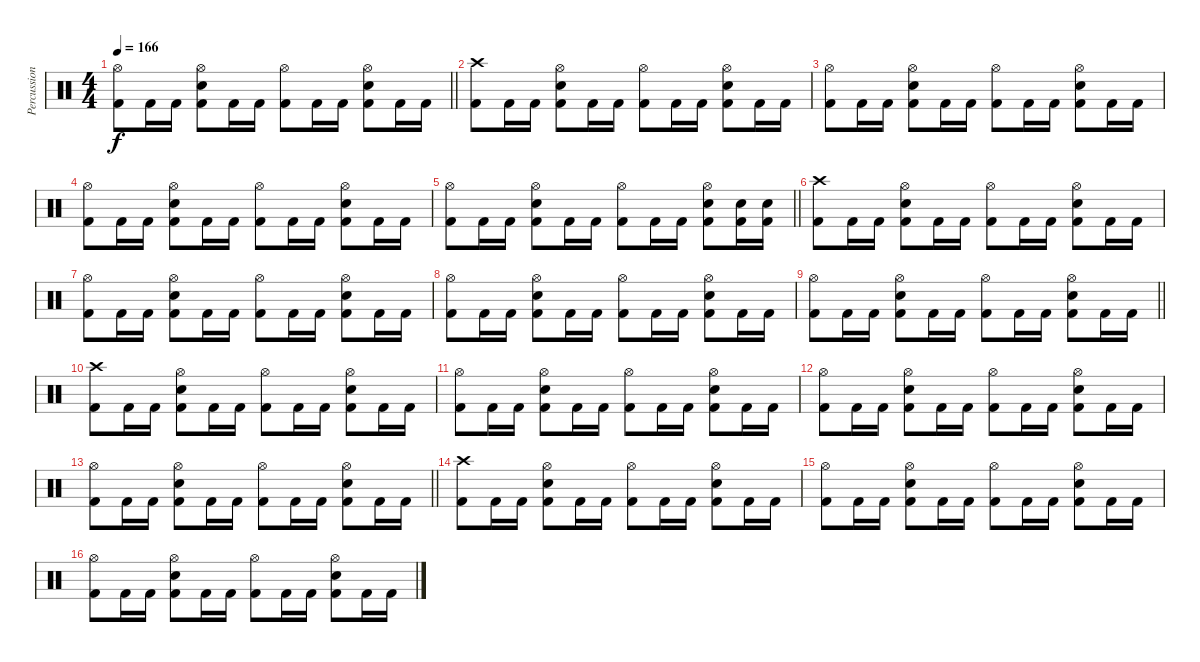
\track ("Percussion" "Percussion") {instrument percussion}
\staff {score}
\articulation defaults
\ts (4 4)
\tempo 166
\clef neutral
\barLineRight lightlight
\ks c
("Hi-Hat (open)" "Kick (hit) 2").8{dy f} "Kick (hit) 2".16 "Kick (hit) 2".16 ("Hi-Hat (open)" "Snare (hit) 2" "Kick (hit) 2").8 "Kick (hit) 2".16 "Kick (hit) 2".16 ("Hi-Hat (open)" "Kick (hit) 2").8 "Kick (hit) 2".16 "Kick (hit) 2".16 ("Hi-Hat (open)" "Snare (hit) 2" "Kick (hit) 2").8 "Kick (hit) 2".16 "Kick (hit) 2".16 |
("Crash high (hit)" "Kick (hit) 2").8 "Kick (hit) 2".16 "Kick (hit) 2".16 ("Hi-Hat (open)" "Snare (hit) 2" "Kick (hit) 2").8 "Kick (hit) 2".16 "Kick (hit) 2".16 ("Hi-Hat (open)" "Kick (hit) 2").8 "Kick (hit) 2".16 "Kick (hit) 2".16 ("Hi-Hat (open)" "Snare (hit) 2" "Kick (hit) 2").8 "Kick (hit) 2".16 "Kick (hit) 2".16 |
("Hi-Hat (open)" "Kick (hit) 2").8 "Kick (hit) 2".16 "Kick (hit) 2".16 ("Hi-Hat (open)" "Snare (hit) 2" "Kick (hit) 2").8 "Kick (hit) 2".16 "Kick (hit) 2".16 ("Hi-Hat (open)" "Kick (hit) 2").8 "Kick (hit) 2".16 "Kick (hit) 2".16 ("Hi-Hat (open)" "Snare (hit) 2" "Kick (hit) 2").8 "Kick (hit) 2".16 "Kick (hit) 2".16 |
("Hi-Hat (open)" "Kick (hit) 2").8 "Kick (hit) 2".16 "Kick (hit) 2".16 ("Hi-Hat (open)" "Snare (hit) 2" "Kick (hit) 2").8 "Kick (hit) 2".16 "Kick (hit) 2".16 ("Hi-Hat (open)" "Kick (hit) 2").8 "Kick (hit) 2".16 "Kick (hit) 2".16 ("Hi-Hat (open)" "Snare (hit) 2" "Kick (hit) 2").8 "Kick (hit) 2".16 "Kick (hit) 2".16 |
\barLineRight lightlight
("Hi-Hat (open)" "Kick (hit) 2").8 "Kick (hit) 2".16 "Kick (hit) 2".16 ("Hi-Hat (open)" "Snare (hit) 2" "Kick (hit) 2").8 "Kick (hit) 2".16 "Kick (hit) 2".16 ("Hi-Hat (open)" "Kick (hit) 2").8 "Kick (hit) 2".16 "Kick (hit) 2".16 ("Hi-Hat (open)" "Snare (hit) 2" "Kick (hit) 2").8 ("Snare (hit) 2" "Kick (hit) 2").16 ("Snare (hit) 2" "Kick (hit) 2").16 |
("Crash high (hit)" "Kick (hit) 2").8 "Kick (hit) 2".16 "Kick (hit) 2".16 ("Hi-Hat (open)" "Snare (hit) 2" "Kick (hit) 2").8 "Kick (hit) 2".16 "Kick (hit) 2".16 ("Hi-Hat (open)" "Kick (hit) 2").8 "Kick (hit) 2".16 "Kick (hit) 2".16 ("Hi-Hat (open)" "Snare (hit) 2" "Kick (hit) 2").8 "Kick (hit) 2".16 "Kick (hit) 2".16 |
("Hi-Hat (open)" "Kick (hit) 2").8 "Kick (hit) 2".16 "Kick (hit) 2".16 ("Hi-Hat (open)" "Snare (hit) 2" "Kick (hit) 2").8 "Kick (hit) 2".16 "Kick (hit) 2".16 ("Hi-Hat (open)" "Kick (hit) 2").8 "Kick (hit) 2".16 "Kick (hit) 2".16 ("Hi-Hat (open)" "Snare (hit) 2" "Kick (hit) 2").8 "Kick (hit) 2".16 "Kick (hit) 2".16 |
("Hi-Hat (open)" "Kick (hit) 2").8 "Kick (hit) 2".16 "Kick (hit) 2".16 ("Hi-Hat (open)" "Snare (hit) 2" "Kick (hit) 2").8 "Kick (hit) 2".16 "Kick (hit) 2".16 ("Hi-Hat (open)" "Kick (hit) 2").8 "Kick (hit) 2".16 "Kick (hit) 2".16 ("Hi-Hat (open)" "Snare (hit) 2" "Kick (hit) 2").8 "Kick (hit) 2".16 "Kick (hit) 2".16 |
\barLineRight lightlight
("Hi-Hat (open)" "Kick (hit) 2").8 "Kick (hit) 2".16 "Kick (hit) 2".16 ("Hi-Hat (open)" "Snare (hit) 2" "Kick (hit) 2").8 "Kick (hit) 2".16 "Kick (hit) 2".16 ("Hi-Hat (open)" "Kick (hit) 2").8 "Kick (hit) 2".16 "Kick (hit) 2".16 ("Hi-Hat (open)" "Snare (hit) 2" "Kick (hit) 2").8 "Kick (hit) 2".16 "Kick (hit) 2".16 |
("Crash high (hit)" "Kick (hit) 2").8 "Kick (hit) 2".16 "Kick (hit) 2".16 ("Hi-Hat (open)" "Snare (hit) 2" "Kick (hit) 2").8 "Kick (hit) 2".16 "Kick (hit) 2".16 ("Hi-Hat (open)" "Kick (hit) 2").8 "Kick (hit) 2".16 "Kick (hit) 2".16 ("Hi-Hat (open)" "Snare (hit) 2" "Kick (hit) 2").8 "Kick (hit) 2".16 "Kick (hit) 2".16 |
("Hi-Hat (open)" "Kick (hit) 2").8 "Kick (hit) 2".16 "Kick (hit) 2".16 ("Hi-Hat (open)" "Snare (hit) 2" "Kick (hit) 2").8 "Kick (hit) 2".16 "Kick (hit) 2".16 ("Hi-Hat (open)" "Kick (hit) 2").8 "Kick (hit) 2".16 "Kick (hit) 2".16 ("Hi-Hat (open)" "Snare (hit) 2" "Kick (hit) 2").8 "Kick (hit) 2".16 "Kick (hit) 2".16 |
("Hi-Hat (open)" "Kick (hit) 2").8 "Kick (hit) 2".16 "Kick (hit) 2".16 ("Hi-Hat (open)" "Snare (hit) 2" "Kick (hit) 2").8 "Kick (hit) 2".16 "Kick (hit) 2".16 ("Hi-Hat (open)" "Kick (hit) 2").8 "Kick (hit) 2".16 "Kick (hit) 2".16 ("Hi-Hat (open)" "Snare (hit) 2" "Kick (hit) 2").8 "Kick (hit) 2".16 "Kick (hit) 2".16 |
\barLineRight lightlight
("Hi-Hat (open)" "Kick (hit) 2").8 "Kick (hit) 2".16 "Kick (hit) 2".16 ("Hi-Hat (open)" "Snare (hit) 2" "Kick (hit) 2").8 "Kick (hit) 2".16 "Kick (hit) 2".16 ("Hi-Hat (open)" "Kick (hit) 2").8 "Kick (hit) 2".16 "Kick (hit) 2".16 ("Hi-Hat (open)" "Snare (hit) 2" "Kick (hit) 2").8 "Kick (hit) 2".16 "Kick (hit) 2".16 |
("Crash high (hit)" "Kick (hit) 2").8 "Kick (hit) 2".16 "Kick (hit) 2".16 ("Hi-Hat (open)" "Snare (hit) 2" "Kick (hit) 2").8 "Kick (hit) 2".16 "Kick (hit) 2".16 ("Hi-Hat (open)" "Kick (hit) 2").8 "Kick (hit) 2".16 "Kick (hit) 2".16 ("Hi-Hat (open)" "Snare (hit) 2" "Kick (hit) 2").8 "Kick (hit) 2".16 "Kick (hit) 2".16 |
("Hi-Hat (open)" "Kick (hit) 2").8 "Kick (hit) 2".16 "Kick (hit) 2".16 ("Hi-Hat (open)" "Snare (hit) 2" "Kick (hit) 2").8 "Kick (hit) 2".16 "Kick (hit) 2".16 ("Hi-Hat (open)" "Kick (hit) 2").8 "Kick (hit) 2".16 "Kick (hit) 2".16 ("Hi-Hat (open)" "Snare (hit) 2" "Kick (hit) 2").8 "Kick (hit) 2".16 "Kick (hit) 2".16 |
("Hi-Hat (open)" "Kick (hit) 2").8 "Kick (hit) 2".16 "Kick (hit) 2".16 ("Hi-Hat (open)" "Snare (hit) 2" "Kick (hit) 2").8 "Kick (hit) 2".16 "Kick (hit) 2".16 ("Hi-Hat (open)" "Kick (hit) 2").8 "Kick (hit) 2".16 "Kick (hit) 2".16 ("Hi-Hat (open)" "Snare (hit) 2" "Kick (hit) 2").8 "Kick (hit) 2".16 "Kick (hit) 2".16
